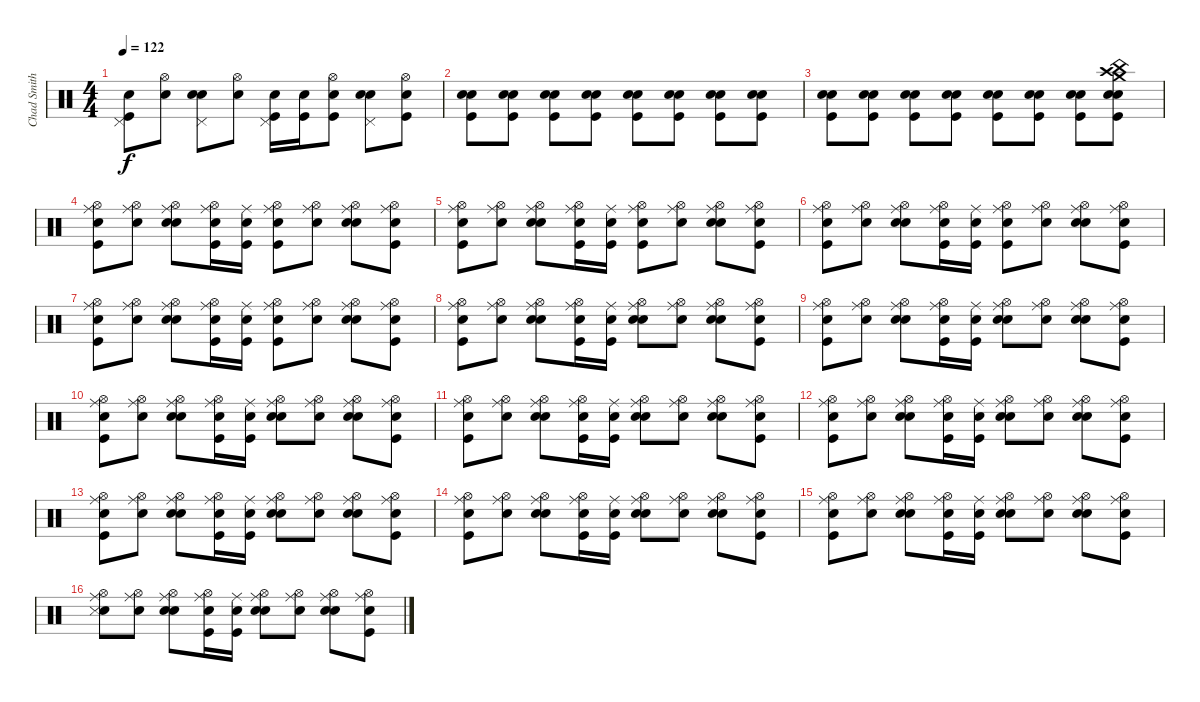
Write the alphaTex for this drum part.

\track ("Chad Smith" "Chad Smith") {instrument percussion}
\staff {score}
\articulation defaults
\ts (4 4)
\tempo 122
\clef neutral
\ks c
("Snare (hit)" "Pedal Hi-Hat (hit)" "Kick (hit)").8{dy f} ("Snare (hit)" "Hi-Hat (open)").8 ("Snare (hit)" "Electric Snare (hit)" "Pedal Hi-Hat (hit)").8 ("Snare (hit)" "Hi-Hat (open)").8 ("Snare (hit)" "Pedal Hi-Hat (hit)" "Kick (hit)").16 ("Snare (hit)" "Kick (hit)").16 ("Snare (hit)" "Kick (hit)" "Hi-Hat (open)").8 ("Snare (hit)" "Pedal Hi-Hat (hit)" "Electric Snare (hit)").8 ("Snare (hit)" "Kick (hit)" "Hi-Hat (open)").8 |
("Snare (hit)" "Electric Snare (hit)" "Kick (hit)").8 ("Snare (hit)" "Electric Snare (hit)" "Kick (hit)").8 ("Snare (hit)" "Kick (hit)" "Electric Snare (hit)").8 ("Snare (hit)" "Kick (hit)" "Electric Snare (hit)").8 ("Snare (hit)" "Kick (hit)" "Electric Snare (hit)").8 ("Snare (hit)" "Electric Snare (hit)" "Kick (hit)").8 ("Snare (hit)" "Kick (hit)" "Electric Snare (hit)").8 ("Snare (hit)" "Electric Snare (hit)" "Kick (hit)").8 |
("Snare (hit)" "Electric Snare (hit)" "Kick (hit)").8 ("Snare (hit)" "Electric Snare (hit)" "Kick (hit)").8 ("Snare (hit)" "Electric Snare (hit)" "Kick (hit)").8 ("Snare (hit)" "Kick (hit)" "Electric Snare (hit)").8 ("Snare (hit)" "Kick (hit)" "Electric Snare (hit)").8 ("Snare (hit)" "Electric Snare (hit)" "Kick (hit)").8 ("Snare (hit)" "Electric Snare (hit)" "Kick (hit)").8 ("Snare (hit)" "Electric Snare (hit)" "China (hit)" "Crash medium (hit)" "Crash high (hit)" "Kick (hit)").8 |
("Snare (hit)" "Kick (hit)" "Hi-Hat (open)" "Ride (middle)").8 ("Snare (hit)" "Ride (middle)" "Hi-Hat (open)").8 ("Snare (hit)" "Ride (middle)" "Electric Snare (hit)" "Hi-Hat (open)").8 ("Snare (hit)" "Kick (hit)" "Ride (middle)" "Hi-Hat (open)").16 ("Snare (hit)" "Ride (middle)" "Kick (hit)").16 ("Snare (hit)" "Ride (middle)" "Hi-Hat (open)" "Kick (hit)").8 ("Snare (hit)" "Ride (middle)" "Hi-Hat (open)").8 ("Snare (hit)" "Electric Snare (hit)" "Hi-Hat (open)" "Ride (middle)").8 ("Snare (hit)" "Hi-Hat (open)" "Ride (middle)" "Kick (hit)").8 |
("Snare (hit)" "Ride (middle)" "Kick (hit)" "Hi-Hat (open)").8 ("Snare (hit)" "Hi-Hat (open)" "Ride (middle)").8 ("Snare (hit)" "Hi-Hat (open)" "Electric Snare (hit)" "Ride (middle)").8 ("Snare (hit)" "Kick (hit)" "Ride (middle)" "Hi-Hat (open)").16 ("Snare (hit)" "Kick (hit)" "Ride (middle)").16 ("Snare (hit)" "Ride (middle)" "Kick (hit)" "Hi-Hat (open)").8 ("Snare (hit)" "Hi-Hat (open)" "Ride (middle)").8 ("Snare (hit)" "Hi-Hat (open)" "Electric Snare (hit)" "Ride (middle)").8 ("Snare (hit)" "Kick (hit)" "Ride (middle)" "Hi-Hat (open)").8 |
("Snare (hit)" "Kick (hit)" "Hi-Hat (open)" "Ride (middle)").8 ("Snare (hit)" "Ride (middle)" "Hi-Hat (open)").8 ("Snare (hit)" "Hi-Hat (open)" "Ride (middle)" "Electric Snare (hit)").8 ("Snare (hit)" "Kick (hit)" "Hi-Hat (open)" "Ride (middle)").16 ("Snare (hit)" "Kick (hit)" "Ride (middle)").16 ("Snare (hit)" "Hi-Hat (open)" "Kick (hit)" "Ride (middle)").8 ("Snare (hit)" "Hi-Hat (open)" "Ride (middle)").8 ("Snare (hit)" "Ride (middle)" "Hi-Hat (open)" "Electric Snare (hit)").8 ("Snare (hit)" "Hi-Hat (open)" "Ride (middle)" "Kick (hit)").8 |
("Snare (hit)" "Kick (hit)" "Hi-Hat (open)" "Ride (middle)").8 ("Snare (hit)" "Hi-Hat (open)" "Ride (middle)").8 ("Snare (hit)" "Electric Snare (hit)" "Ride (middle)" "Hi-Hat (open)").8 ("Snare (hit)" "Ride (middle)" "Hi-Hat (open)" "Kick (hit)").16 ("Snare (hit)" "Ride (middle)" "Kick (hit)").16 ("Snare (hit)" "Ride (middle)" "Kick (hit)" "Hi-Hat (open)").8 ("Snare (hit)" "Hi-Hat (open)" "Ride (middle)").8 ("Snare (hit)" "Ride (middle)" "Hi-Hat (open)" "Electric Snare (hit)").8 ("Snare (hit)" "Hi-Hat (open)" "Ride (middle)" "Kick (hit)").8 |
("Snare (hit)" "Kick (hit)" "Ride (middle)" "Hi-Hat (open)").8 ("Snare (hit)" "Ride (middle)" "Hi-Hat (open)").8 ("Snare (hit)" "Ride (middle)" "Hi-Hat (open)" "Electric Snare (hit)").8 ("Snare (hit)" "Ride (middle)" "Kick (hit)" "Hi-Hat (open)").16 ("Snare (hit)" "Kick (hit)" "Ride (middle)").16 ("Snare (hit)" "Ride (middle)" "Hi-Hat (open)" "Metronome (bell)").8 ("Snare (hit)" "Ride (middle)" "Hi-Hat (open)").8 ("Snare (hit)" "Ride (middle)" "Hi-Hat (open)" "Electric Snare (hit)").8 ("Snare (hit)" "Kick (hit)" "Hi-Hat (open)" "Ride (middle)").8 |
("Snare (hit)" "Kick (hit)" "Hi-Hat (open)" "Ride (middle)").8 ("Snare (hit)" "Ride (middle)" "Hi-Hat (open)").8 ("Snare (hit)" "Electric Snare (hit)" "Hi-Hat (open)" "Ride (middle)").8 ("Snare (hit)" "Ride (middle)" "Hi-Hat (open)" "Kick (hit)").16 ("Snare (hit)" "Ride (middle)" "Kick (hit)").16 ("Snare (hit)" "Metronome (bell)" "Hi-Hat (open)" "Ride (middle)").8 ("Snare (hit)" "Hi-Hat (open)" "Ride (middle)").8 ("Snare (hit)" "Ride (middle)" "Hi-Hat (open)" "Electric Snare (hit)").8 ("Snare (hit)" "Ride (middle)" "Kick (hit)" "Hi-Hat (open)").8 |
("Snare (hit)" "Kick (hit)" "Hi-Hat (open)" "Ride (middle)").8 ("Snare (hit)" "Ride (middle)" "Hi-Hat (open)").8 ("Snare (hit)" "Electric Snare (hit)" "Ride (middle)" "Hi-Hat (open)").8 ("Snare (hit)" "Hi-Hat (open)" "Kick (hit)" "Ride (middle)").16 ("Snare (hit)" "Ride (middle)" "Kick (hit)").16 ("Snare (hit)" "Ride (middle)" "Hi-Hat (open)" "Metronome (bell)").8 ("Snare (hit)" "Hi-Hat (open)" "Ride (middle)").8 ("Snare (hit)" "Ride (middle)" "Hi-Hat (open)" "Electric Snare (hit)").8 ("Snare (hit)" "Ride (middle)" "Kick (hit)" "Hi-Hat (open)").8 |
("Snare (hit)" "Kick (hit)" "Hi-Hat (open)" "Ride (middle)").8 ("Snare (hit)" "Ride (middle)" "Hi-Hat (open)").8 ("Snare (hit)" "Electric Snare (hit)" "Ride (middle)" "Hi-Hat (open)").8 ("Snare (hit)" "Hi-Hat (open)" "Kick (hit)" "Ride (middle)").16 ("Snare (hit)" "Kick (hit)" "Ride (middle)").16 ("Snare (hit)" "Hi-Hat (open)" "Metronome (bell)" "Ride (middle)").8 ("Snare (hit)" "Ride (middle)" "Hi-Hat (open)").8 ("Snare (hit)" "Ride (middle)" "Electric Snare (hit)" "Hi-Hat (open)").8 ("Snare (hit)" "Ride (middle)" "Kick (hit)" "Hi-Hat (open)").8 |
("Snare (hit)" "Kick (hit)" "Hi-Hat (open)" "Ride (middle)").8 ("Snare (hit)" "Ride (middle)" "Hi-Hat (open)").8 ("Snare (hit)" "Ride (middle)" "Hi-Hat (open)" "Electric Snare (hit)").8 ("Snare (hit)" "Kick (hit)" "Hi-Hat (open)" "Ride (middle)").16 ("Snare (hit)" "Kick (hit)" "Ride (middle)").16 ("Snare (hit)" "Metronome (bell)" "Hi-Hat (open)" "Ride (middle)").8 ("Snare (hit)" "Hi-Hat (open)" "Ride (middle)").8 ("Snare (hit)" "Electric Snare (hit)" "Hi-Hat (open)" "Ride (middle)").8 ("Snare (hit)" "Kick (hit)" "Hi-Hat (open)" "Ride (middle)").8 |
("Snare (hit)" "Kick (hit)" "Hi-Hat (open)" "Ride (middle)").8 ("Snare (hit)" "Ride (middle)" "Hi-Hat (open)").8 ("Snare (hit)" "Ride (middle)" "Hi-Hat (open)" "Electric Snare (hit)").8 ("Snare (hit)" "Kick (hit)" "Hi-Hat (open)" "Ride (middle)").16 ("Snare (hit)" "Kick (hit)" "Ride (middle)").16 ("Snare (hit)" "Metronome (bell)" "Hi-Hat (open)" "Ride (middle)").8 ("Snare (hit)" "Hi-Hat (open)" "Ride (middle)").8 ("Snare (hit)" "Electric Snare (hit)" "Hi-Hat (open)" "Ride (middle)").8 ("Snare (hit)" "Kick (hit)" "Hi-Hat (open)" "Ride (middle)").8 |
("Snare (hit)" "Kick (hit)" "Hi-Hat (open)" "Ride (middle)").8 ("Snare (hit)" "Ride (middle)" "Hi-Hat (open)").8 ("Snare (hit)" "Ride (middle)" "Hi-Hat (open)" "Electric Snare (hit)").8 ("Snare (hit)" "Hi-Hat (open)" "Kick (hit)" "Ride (middle)").16 ("Snare (hit)" "Kick (hit)" "Ride (middle)").16 ("Snare (hit)" "Metronome (bell)" "Ride (middle)" "Hi-Hat (open)").8 ("Snare (hit)" "Hi-Hat (open)" "Ride (middle)").8 ("Snare (hit)" "Ride (middle)" "Hi-Hat (open)" "Electric Snare (hit)").8 ("Snare (hit)" "Ride (middle)" "Hi-Hat (open)" "Kick (hit)").8 |
("Snare (hit)" "Kick (hit)" "Ride (middle)" "Hi-Hat (open)").8 ("Snare (hit)" "Hi-Hat (open)" "Ride (middle)").8 ("Snare (hit)" "Hi-Hat (open)" "Electric Snare (hit)" "Ride (middle)").8 ("Snare (hit)" "Kick (hit)" "Hi-Hat (open)" "Ride (middle)").16 ("Snare (hit)" "Ride (middle)" "Kick (hit)").16 ("Snare (hit)" "Metronome (bell)" "Hi-Hat (open)" "Ride (middle)").8 ("Snare (hit)" "Ride (middle)" "Hi-Hat (open)").8 ("Snare (hit)" "Ride (middle)" "Electric Snare (hit)" "Hi-Hat (open)").8 ("Snare (hit)" "Ride (middle)" "Kick (hit)" "Hi-Hat (open)").8 |
("Snare (hit)" "Metronome (hit)" "Hi-Hat (open)" "Ride (middle)").8 ("Snare (hit)" "Hi-Hat (open)" "Ride (middle)").8 ("Snare (hit)" "Ride (middle)" "Electric Snare (hit)" "Hi-Hat (open)").8 ("Snare (hit)" "Kick (hit)" "Hi-Hat (open)" "Ride (middle)").16 ("Snare (hit)" "Kick (hit)" "Ride (middle)").16 ("Snare (hit)" "Ride (middle)" "Hi-Hat (open)" "Metronome (bell)").8 ("Snare (hit)" "Ride (middle)" "Hi-Hat (open)").8 ("Snare (hit)" "Hi-Hat (open)" "Electric Snare (hit)" "Ride (middle)").8 ("Snare (hit)" "Kick (hit)" "Ride (middle)" "Hi-Hat (open)").8
